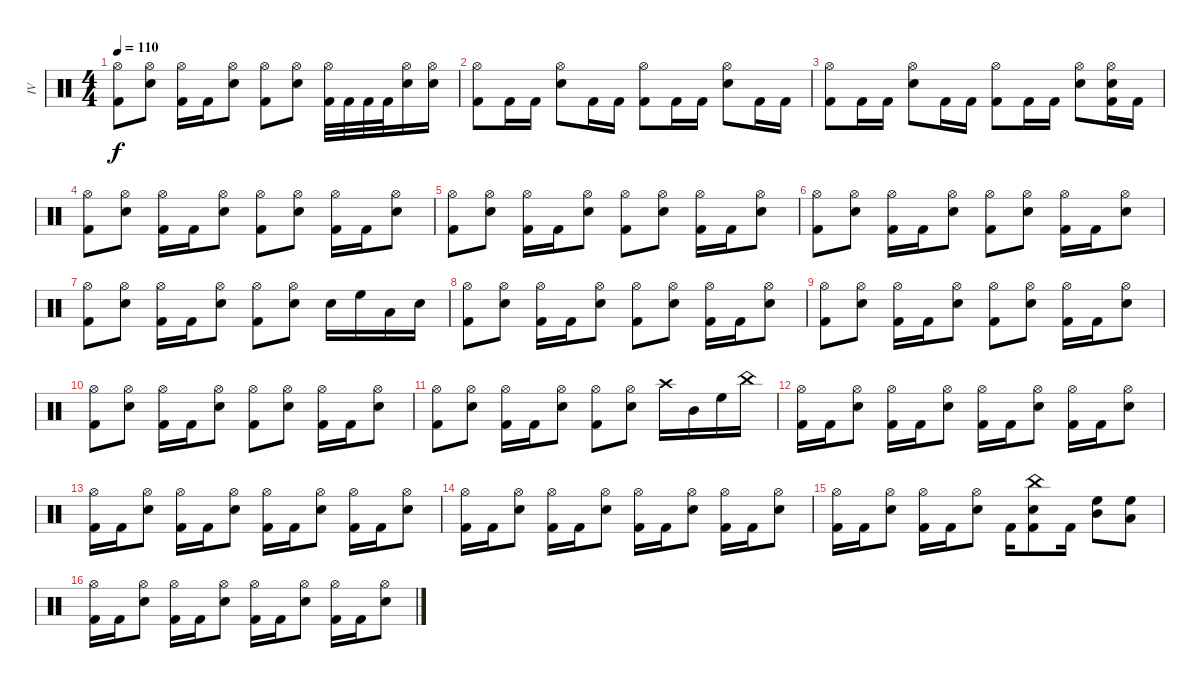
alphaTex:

\track ("IV" "IV") {instrument percussion}
\staff {score}
\articulation defaults
\ts (4 4)
\tempo 110
\clef neutral
\ks c
("Hi-Hat (open)" "Kick (hit) 2").8{dy f} ("Hi-Hat (open)" "Snare (hit) 2").8 ("Hi-Hat (open)" "Kick (hit) 2").16 "Kick (hit) 2".16 ("Hi-Hat (open)" "Snare (hit) 2").8 ("Hi-Hat (open)" "Kick (hit) 2").8 ("Hi-Hat (open)" "Snare (hit) 2").8 ("Hi-Hat (open)" "Kick (hit) 2").32 "Kick (hit) 2".32 "Kick (hit) 2".32 "Kick (hit) 2".32 ("Hi-Hat (open)" "Snare (hit) 2").16 ("Hi-Hat (open)" "Snare (hit) 2").16 |
("Hi-Hat (open)" "Kick (hit) 2").8 "Kick (hit) 2".16 "Kick (hit) 2".16 ("Hi-Hat (open)" "Snare (hit) 2").8 "Kick (hit) 2".16 "Kick (hit) 2".16 ("Hi-Hat (open)" "Kick (hit) 2").8 "Kick (hit) 2".16 "Kick (hit) 2".16 ("Hi-Hat (open)" "Snare (hit) 2").8 "Kick (hit) 2".16 "Kick (hit) 2".16 |
("Hi-Hat (open)" "Kick (hit) 2").8 "Kick (hit) 2".16 "Kick (hit) 2".16 ("Hi-Hat (open)" "Snare (hit) 2").8 "Kick (hit) 2".16 "Kick (hit) 2".16 ("Hi-Hat (open)" "Kick (hit) 2").8 "Kick (hit) 2".16 "Kick (hit) 2".16 ("Hi-Hat (open)" "Snare (hit) 2").8 ("Hi-Hat (open)" "Snare (hit) 2" "Kick (hit) 2").16 "Kick (hit) 2".16 |
("Hi-Hat (open)" "Kick (hit) 2").8 ("Hi-Hat (open)" "Snare (hit) 2").8 ("Hi-Hat (open)" "Kick (hit) 2").16 "Kick (hit) 2".16 ("Hi-Hat (open)" "Snare (hit) 2").8 ("Hi-Hat (open)" "Kick (hit) 2").8 ("Hi-Hat (open)" "Snare (hit) 2").8 ("Hi-Hat (open)" "Kick (hit) 2").16 "Kick (hit) 2".16 ("Hi-Hat (open)" "Snare (hit) 2").8 |
("Hi-Hat (open)" "Kick (hit) 2").8 ("Hi-Hat (open)" "Snare (hit) 2").8 ("Hi-Hat (open)" "Kick (hit) 2").16 "Kick (hit) 2".16 ("Hi-Hat (open)" "Snare (hit) 2").8 ("Hi-Hat (open)" "Kick (hit) 2").8 ("Hi-Hat (open)" "Snare (hit) 2").8 ("Hi-Hat (open)" "Kick (hit) 2").16 "Kick (hit) 2".16 ("Hi-Hat (open)" "Snare (hit) 2").8 |
("Hi-Hat (open)" "Kick (hit) 2").8 ("Hi-Hat (open)" "Snare (hit) 2").8 ("Hi-Hat (open)" "Kick (hit) 2").16 "Kick (hit) 2".16 ("Hi-Hat (open)" "Snare (hit) 2").8 ("Hi-Hat (open)" "Kick (hit) 2").8 ("Hi-Hat (open)" "Snare (hit) 2").8 ("Hi-Hat (open)" "Kick (hit) 2").16 "Kick (hit) 2".16 ("Hi-Hat (open)" "Snare (hit) 2").8 |
("Hi-Hat (open)" "Kick (hit) 2").8 ("Hi-Hat (open)" "Snare (hit) 2").8 ("Hi-Hat (open)" "Kick (hit) 2").16 "Kick (hit) 2".16 ("Hi-Hat (open)" "Snare (hit) 2").8 ("Hi-Hat (open)" "Kick (hit) 2").8 ("Hi-Hat (open)" "Snare (hit) 2").8 "Snare (hit) 2".16 "High Floor Tom (hit)".16 "Low Tom (hit)".16 "Snare (hit) 2".16 |
("Hi-Hat (open)" "Kick (hit) 2").8 ("Hi-Hat (open)" "Snare (hit) 2").8 ("Hi-Hat (open)" "Kick (hit) 2").16 "Kick (hit) 2".16 ("Hi-Hat (open)" "Snare (hit) 2").8 ("Hi-Hat (open)" "Kick (hit) 2").8 ("Hi-Hat (open)" "Snare (hit) 2").8 ("Hi-Hat (open)" "Kick (hit) 2").16 "Kick (hit) 2".16 ("Hi-Hat (open)" "Snare (hit) 2").8 |
("Hi-Hat (open)" "Kick (hit) 2").8 ("Hi-Hat (open)" "Snare (hit) 2").8 ("Hi-Hat (open)" "Kick (hit) 2").16 "Kick (hit) 2".16 ("Hi-Hat (open)" "Snare (hit) 2").8 ("Hi-Hat (open)" "Kick (hit) 2").8 ("Hi-Hat (open)" "Snare (hit) 2").8 ("Hi-Hat (open)" "Kick (hit) 2").16 "Kick (hit) 2".16 ("Hi-Hat (open)" "Snare (hit) 2").8 |
("Hi-Hat (open)" "Kick (hit) 2").8 ("Hi-Hat (open)" "Snare (hit) 2").8 ("Hi-Hat (open)" "Kick (hit) 2").16 "Kick (hit) 2".16 ("Hi-Hat (open)" "Snare (hit) 2").8 ("Hi-Hat (open)" "Kick (hit) 2").8 ("Hi-Hat (open)" "Snare (hit) 2").8 ("Hi-Hat (open)" "Kick (hit) 2").16 "Kick (hit) 2".16 ("Hi-Hat (open)" "Snare (hit) 2").8 |
("Hi-Hat (open)" "Kick (hit) 2").8 ("Hi-Hat (open)" "Snare (hit) 2").8 ("Hi-Hat (open)" "Kick (hit) 2").16 "Kick (hit) 2".16 ("Hi-Hat (open)" "Snare (hit) 2").8 ("Hi-Hat (open)" "Kick (hit) 2").8 ("Hi-Hat (open)" "Snare (hit) 2").8 "Crash high (hit)".16 "Mid Tom (hit)".16 "High Floor Tom (hit)".16 "China (hit)".16 |
("Hi-Hat (open)" "Kick (hit) 2").16 "Kick (hit) 2".16 ("Hi-Hat (open)" "Snare (hit) 2").8 ("Hi-Hat (open)" "Kick (hit) 2").16 "Kick (hit) 2".16 ("Hi-Hat (open)" "Snare (hit) 2").8 ("Hi-Hat (open)" "Kick (hit) 2").16 "Kick (hit) 2".16 ("Hi-Hat (open)" "Snare (hit) 2").8 ("Hi-Hat (open)" "Kick (hit) 2").16 "Kick (hit) 2".16 ("Hi-Hat (open)" "Snare (hit) 2").8 |
("Hi-Hat (open)" "Kick (hit) 2").16 "Kick (hit) 2".16 ("Hi-Hat (open)" "Snare (hit) 2").8 ("Hi-Hat (open)" "Kick (hit) 2").16 "Kick (hit) 2".16 ("Hi-Hat (open)" "Snare (hit) 2").8 ("Hi-Hat (open)" "Kick (hit) 2").16 "Kick (hit) 2".16 ("Hi-Hat (open)" "Snare (hit) 2").8 ("Hi-Hat (open)" "Kick (hit) 2").16 "Kick (hit) 2".16 ("Hi-Hat (open)" "Snare (hit) 2").8 |
("Hi-Hat (open)" "Kick (hit) 2").16 "Kick (hit) 2".16 ("Hi-Hat (open)" "Snare (hit) 2").8 ("Hi-Hat (open)" "Kick (hit) 2").16 "Kick (hit) 2".16 ("Hi-Hat (open)" "Snare (hit) 2").8 ("Hi-Hat (open)" "Kick (hit) 2").16 "Kick (hit) 2".16 ("Hi-Hat (open)" "Snare (hit) 2").8 ("Hi-Hat (open)" "Kick (hit) 2").16 "Kick (hit) 2".16 ("Hi-Hat (open)" "Snare (hit) 2").8 |
("Hi-Hat (open)" "Kick (hit) 2").16 "Kick (hit) 2".16 ("Hi-Hat (open)" "Snare (hit) 2").8 ("Hi-Hat (open)" "Kick (hit) 2").16 "Kick (hit) 2".16 ("Hi-Hat (open)" "Snare (hit) 2").8 "Kick (hit) 2".16 ("China (hit)" "Snare (hit) 2" "Kick (hit) 2").8 "Kick (hit) 2".16 ("High Floor Tom (hit)" "Mid Tom (hit)").8 ("High Floor Tom (hit)" "Low Tom (hit)").8 |
("Hi-Hat (open)" "Kick (hit) 2").16 "Kick (hit) 2".16 ("Hi-Hat (open)" "Snare (hit) 2").8 ("Hi-Hat (open)" "Kick (hit) 2").16 "Kick (hit) 2".16 ("Hi-Hat (open)" "Snare (hit) 2").8 ("Hi-Hat (open)" "Kick (hit) 2").16 "Kick (hit) 2".16 ("Hi-Hat (open)" "Snare (hit) 2").8 ("Hi-Hat (open)" "Kick (hit) 2").16 "Kick (hit) 2".16 ("Hi-Hat (open)" "Snare (hit) 2").8
